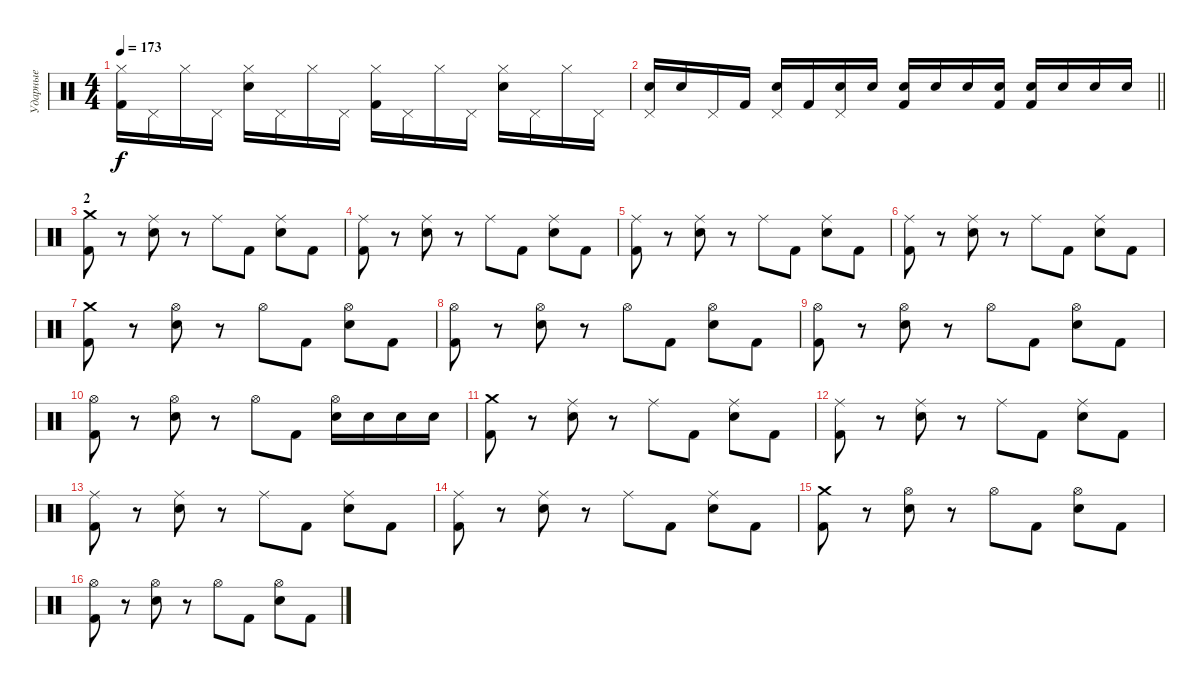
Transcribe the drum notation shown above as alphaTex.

\track ("Ударные" "Ударные") {instrument percussion}
\staff {score}
\articulation defaults
\ts (4 4)
\tempo 173
\clef neutral
\ks c
("Hi-Hat (closed)" "Kick (hit) 2").16{dy f} "Pedal Hi-Hat (hit)".16 "Hi-Hat (closed)".16 "Pedal Hi-Hat (hit)".16 ("Hi-Hat (closed)" "Snare (hit) 2").16 "Pedal Hi-Hat (hit)".16 "Hi-Hat (closed)".16 "Pedal Hi-Hat (hit)".16 ("Hi-Hat (closed)" "Kick (hit) 2").16 "Pedal Hi-Hat (hit)".16 "Hi-Hat (closed)".16 "Pedal Hi-Hat (hit)".16 ("Hi-Hat (closed)" "Snare (hit) 2").16 "Pedal Hi-Hat (hit)".16 "Hi-Hat (closed)".16 "Pedal Hi-Hat (hit)".16 |
\barLineRight lightlight
("Pedal Hi-Hat (hit)" "Snare (hit) 2").16 "Snare (hit) 2".16 "Pedal Hi-Hat (hit)".16 "Kick (hit) 2".16 ("Pedal Hi-Hat (hit)" "Snare (hit) 2").16 "Kick (hit) 2".16 ("Pedal Hi-Hat (hit)" "Snare (hit) 2").16 "Snare (hit) 2".16 ("Snare (hit) 2" "Kick (hit) 2").16 "Snare (hit) 2".16 "Snare (hit) 2".16 ("Snare (hit) 2" "Kick (hit) 2").16 ("Snare (hit) 2" "Kick (hit) 2").16 "Snare (hit) 2".16 "Snare (hit) 2".16 "Snare (hit) 2".16 |
\section ("" "2")
("Crash medium (hit)" "Kick (hit) 2").8 r.8 ("Ride (middle)" "Snare (hit) 2").8 r.8 "Ride (middle)".8 "Kick (hit) 2".8 ("Ride (middle)" "Snare (hit) 2").8 "Kick (hit) 2".8 |
("Ride (middle)" "Kick (hit) 2").8 r.8 ("Ride (middle)" "Snare (hit) 2").8 r.8 "Ride (middle)".8 "Kick (hit) 2".8 ("Ride (middle)" "Snare (hit) 2").8 "Kick (hit) 2".8 |
("Ride (middle)" "Kick (hit) 2").8 r.8 ("Ride (middle)" "Snare (hit) 2").8 r.8 "Ride (middle)".8 "Kick (hit) 2".8 ("Ride (middle)" "Snare (hit) 2").8 "Kick (hit) 2".8 |
("Ride (middle)" "Kick (hit) 2").8 r.8 ("Ride (middle)" "Snare (hit) 2").8 r.8 "Ride (middle)".8 "Kick (hit) 2".8 ("Ride (middle)" "Snare (hit) 2").8 "Kick (hit) 2".8 |
("Crash medium (hit)" "Kick (hit) 2").8 r.8 ("Hi-Hat (open)" "Snare (hit) 2").8 r.8 "Hi-Hat (open)".8 "Kick (hit) 2".8 ("Hi-Hat (open)" "Snare (hit) 2").8 "Kick (hit) 2".8 |
("Hi-Hat (open)" "Kick (hit) 2").8 r.8 ("Hi-Hat (open)" "Snare (hit) 2").8 r.8 "Hi-Hat (open)".8 "Kick (hit) 2".8 ("Hi-Hat (open)" "Snare (hit) 2").8 "Kick (hit) 2".8 |
("Hi-Hat (open)" "Kick (hit) 2").8 r.8 ("Hi-Hat (open)" "Snare (hit) 2").8 r.8 "Hi-Hat (open)".8 "Kick (hit) 2".8 ("Hi-Hat (open)" "Snare (hit) 2").8 "Kick (hit) 2".8 |
("Hi-Hat (open)" "Kick (hit) 2").8 r.8 ("Hi-Hat (open)" "Snare (hit) 2").8 r.8 "Hi-Hat (open)".8 "Kick (hit) 2".8 ("Hi-Hat (open)" "Snare (hit) 2").16 "Snare (hit) 2".16 "Snare (hit) 2".16 "Snare (hit) 2".16 |
("Crash medium (hit)" "Kick (hit) 2").8 r.8 ("Ride (middle)" "Snare (hit) 2").8 r.8 "Ride (middle)".8 "Kick (hit) 2".8 ("Ride (middle)" "Snare (hit) 2").8 "Kick (hit) 2".8 |
("Ride (middle)" "Kick (hit) 2").8 r.8 ("Ride (middle)" "Snare (hit) 2").8 r.8 "Ride (middle)".8 "Kick (hit) 2".8 ("Ride (middle)" "Snare (hit) 2").8 "Kick (hit) 2".8 |
("Ride (middle)" "Kick (hit) 2").8 r.8 ("Ride (middle)" "Snare (hit) 2").8 r.8 "Ride (middle)".8 "Kick (hit) 2".8 ("Ride (middle)" "Snare (hit) 2").8 "Kick (hit) 2".8 |
("Ride (middle)" "Kick (hit) 2").8 r.8 ("Ride (middle)" "Snare (hit) 2").8 r.8 "Ride (middle)".8 "Kick (hit) 2".8 ("Ride (middle)" "Snare (hit) 2").8 "Kick (hit) 2".8 |
("Crash medium (hit)" "Kick (hit) 2").8 r.8 ("Hi-Hat (open)" "Snare (hit) 2").8 r.8 "Hi-Hat (open)".8 "Kick (hit) 2".8 ("Hi-Hat (open)" "Snare (hit) 2").8 "Kick (hit) 2".8 |
("Hi-Hat (open)" "Kick (hit) 2").8 r.8 ("Hi-Hat (open)" "Snare (hit) 2").8 r.8 "Hi-Hat (open)".8 "Kick (hit) 2".8 ("Hi-Hat (open)" "Snare (hit) 2").8 "Kick (hit) 2".8
